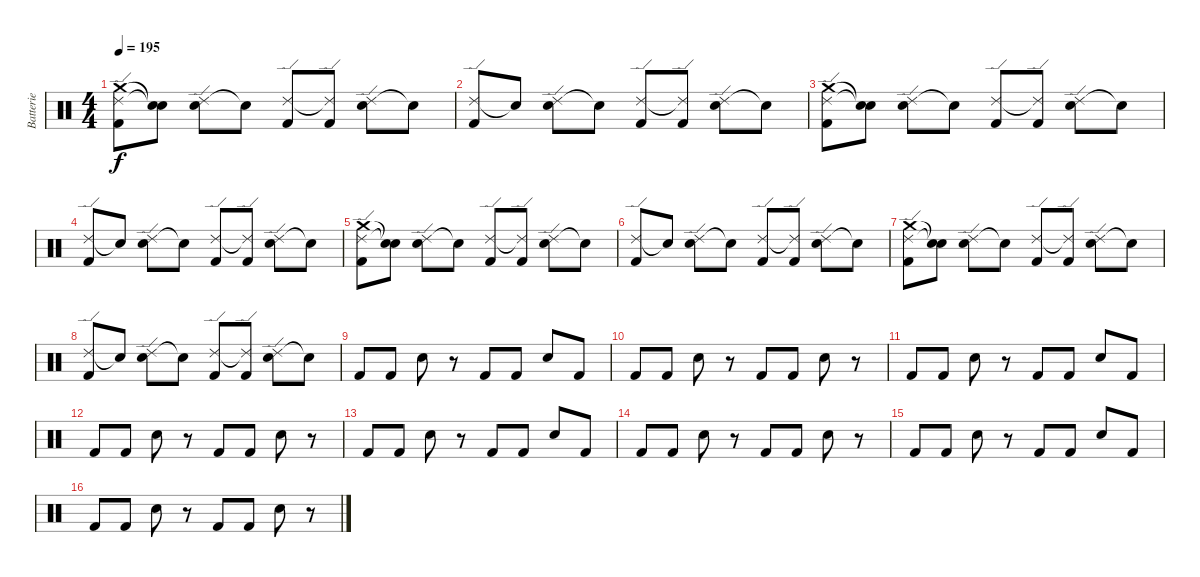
\track ("Batterie" "Batterie") {instrument percussion}
\staff {score}
\articulation defaults
\ts (4 4)
\tempo 195
\clef neutral
\ks c
("Crash medium (hit)" "Ride (edge) 2" "Kick (hit) 2").8{dy f} ("Snare (hit)"{t} "Snare (hit)"{t}).8 ("Ride (edge) 2" "Electric Snare (hit)").8 "Snare (hit)"{t}.8 ("Ride (edge) 2" "Kick (hit) 2").8 ("Ride (edge) 2"{t} "Kick (hit) 2").8 ("Ride (edge) 2" "Electric Snare (hit)").8 "Snare (hit)"{t}.8 |
("Ride (edge) 2" "Kick (hit) 2").8 "Snare (hit)"{t}.8 ("Ride (edge) 2" "Electric Snare (hit)").8 "Snare (hit)"{t}.8 ("Ride (edge) 2" "Kick (hit) 2").8 ("Ride (edge) 2"{t} "Kick (hit) 2").8 ("Ride (edge) 2" "Electric Snare (hit)").8 "Snare (hit)"{t}.8 |
("Crash medium (hit)" "Ride (edge) 2" "Kick (hit) 2").8 ("Snare (hit)"{t} "Snare (hit)"{t}).8 ("Ride (edge) 2" "Electric Snare (hit)").8 "Snare (hit)"{t}.8 ("Ride (edge) 2" "Kick (hit) 2").8 ("Ride (edge) 2"{t} "Kick (hit) 2").8 ("Ride (edge) 2" "Electric Snare (hit)").8 "Snare (hit)"{t}.8 |
("Ride (edge) 2" "Kick (hit) 2").8 "Snare (hit)"{t}.8 ("Ride (edge) 2" "Electric Snare (hit)").8 "Snare (hit)"{t}.8 ("Ride (edge) 2" "Kick (hit) 2").8 ("Ride (edge) 2"{t} "Kick (hit) 2").8 ("Ride (edge) 2" "Electric Snare (hit)").8 "Snare (hit)"{t}.8 |
("Crash medium (hit)" "Ride (edge) 2" "Kick (hit) 2").8 ("Snare (hit)"{t} "Snare (hit)"{t}).8 ("Ride (edge) 2" "Electric Snare (hit)").8 "Snare (hit)"{t}.8 ("Ride (edge) 2" "Kick (hit) 2").8 ("Ride (edge) 2"{t} "Kick (hit) 2").8 ("Ride (edge) 2" "Electric Snare (hit)").8 "Snare (hit)"{t}.8 |
("Ride (edge) 2" "Kick (hit) 2").8 "Snare (hit)"{t}.8 ("Ride (edge) 2" "Electric Snare (hit)").8 "Snare (hit)"{t}.8 ("Ride (edge) 2" "Kick (hit) 2").8 ("Ride (edge) 2"{t} "Kick (hit) 2").8 ("Ride (edge) 2" "Electric Snare (hit)").8 "Snare (hit)"{t}.8 |
("Crash medium (hit)" "Ride (edge) 2" "Kick (hit) 2").8 ("Snare (hit)"{t} "Snare (hit)"{t}).8 ("Ride (edge) 2" "Electric Snare (hit)").8 "Snare (hit)"{t}.8 ("Ride (edge) 2" "Kick (hit) 2").8 ("Ride (edge) 2"{t} "Kick (hit) 2").8 ("Ride (edge) 2" "Electric Snare (hit)").8 "Snare (hit)"{t}.8 |
("Ride (edge) 2" "Kick (hit) 2").8 "Snare (hit)"{t}.8 ("Ride (edge) 2" "Electric Snare (hit)").8 "Snare (hit)"{t}.8 ("Ride (edge) 2" "Kick (hit) 2").8 ("Ride (edge) 2"{t} "Kick (hit) 2").8 ("Ride (edge) 2" "Electric Snare (hit)").8 "Snare (hit)"{t}.8 |
"Kick (hit) 2".8 "Kick (hit) 2".8 "Electric Snare (hit)".8 r.8 "Kick (hit) 2".8 "Kick (hit) 2".8 "Electric Snare (hit)".8 "Kick (hit) 2".8 |
"Kick (hit) 2".8 "Kick (hit) 2".8 "Electric Snare (hit)".8 r.8 "Kick (hit) 2".8 "Kick (hit) 2".8 "Electric Snare (hit)".8 r.8 |
"Kick (hit) 2".8 "Kick (hit) 2".8 "Electric Snare (hit)".8 r.8 "Kick (hit) 2".8 "Kick (hit) 2".8 "Electric Snare (hit)".8 "Kick (hit) 2".8 |
"Kick (hit) 2".8 "Kick (hit) 2".8 "Electric Snare (hit)".8 r.8 "Kick (hit) 2".8 "Kick (hit) 2".8 "Electric Snare (hit)".8 r.8 |
"Kick (hit) 2".8 "Kick (hit) 2".8 "Electric Snare (hit)".8 r.8 "Kick (hit) 2".8 "Kick (hit) 2".8 "Electric Snare (hit)".8 "Kick (hit) 2".8 |
"Kick (hit) 2".8 "Kick (hit) 2".8 "Electric Snare (hit)".8 r.8 "Kick (hit) 2".8 "Kick (hit) 2".8 "Electric Snare (hit)".8 r.8 |
"Kick (hit) 2".8 "Kick (hit) 2".8 "Electric Snare (hit)".8 r.8 "Kick (hit) 2".8 "Kick (hit) 2".8 "Electric Snare (hit)".8 "Kick (hit) 2".8 |
"Kick (hit) 2".8 "Kick (hit) 2".8 "Electric Snare (hit)".8 r.8 "Kick (hit) 2".8 "Kick (hit) 2".8 "Electric Snare (hit)".8 r.8
